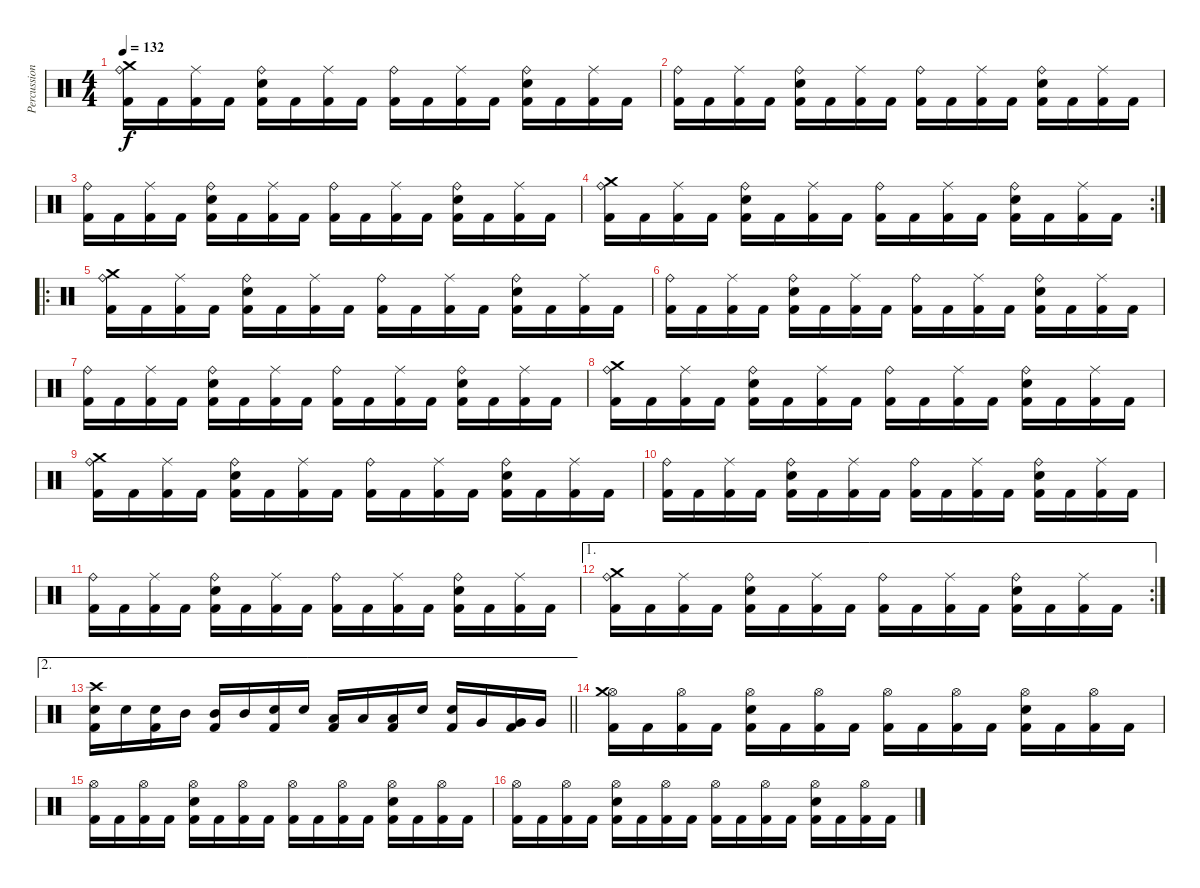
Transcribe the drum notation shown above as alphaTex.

\track ("Percussion" "Percussion") {instrument percussion}
\staff {score}
\articulation defaults
\ts (4 4)
\tempo 132
\clef neutral
\ks c
("Kick (hit) 2" "Ride (bell)" "Crash medium (hit)").16{dy f} "Kick (hit) 2".16 ("Kick (hit) 2" "Ride (middle)").16 "Kick (hit) 2".16 ("Kick (hit) 2" "Electric Snare (hit)" "Ride (bell)").16 "Kick (hit) 2".16 ("Kick (hit) 2" "Ride (middle)").16 "Kick (hit) 2".16 ("Kick (hit) 2" "Ride (bell)").16 "Kick (hit) 2".16 ("Kick (hit) 2" "Ride (middle)").16 "Kick (hit) 2".16 ("Kick (hit) 2" "Electric Snare (hit)" "Ride (bell)").16 "Kick (hit) 2".16 ("Kick (hit) 2" "Ride (middle)").16 "Kick (hit) 2".16 |
("Kick (hit) 2" "Ride (bell)").16 "Kick (hit) 2".16 ("Kick (hit) 2" "Ride (middle)").16 "Kick (hit) 2".16 ("Kick (hit) 2" "Electric Snare (hit)" "Ride (bell)").16 "Kick (hit) 2".16 ("Kick (hit) 2" "Ride (middle)").16 "Kick (hit) 2".16 ("Kick (hit) 2" "Ride (bell)").16 "Kick (hit) 2".16 ("Kick (hit) 2" "Ride (middle)").16 "Kick (hit) 2".16 ("Kick (hit) 2" "Electric Snare (hit)" "Ride (bell)").16 "Kick (hit) 2".16 ("Kick (hit) 2" "Ride (middle)").16 "Kick (hit) 2".16 |
("Kick (hit) 2" "Ride (bell)").16 "Kick (hit) 2".16 ("Kick (hit) 2" "Ride (middle)").16 "Kick (hit) 2".16 ("Kick (hit) 2" "Electric Snare (hit)" "Ride (bell)").16 "Kick (hit) 2".16 ("Kick (hit) 2" "Ride (middle)").16 "Kick (hit) 2".16 ("Kick (hit) 2" "Ride (bell)").16 "Kick (hit) 2".16 ("Kick (hit) 2" "Ride (middle)").16 "Kick (hit) 2".16 ("Kick (hit) 2" "Electric Snare (hit)" "Ride (bell)").16 "Kick (hit) 2".16 ("Kick (hit) 2" "Ride (middle)").16 "Kick (hit) 2".16 |
\rc 2
("Kick (hit) 2" "Ride (bell)" "Crash medium (hit)").16 "Kick (hit) 2".16 ("Kick (hit) 2" "Ride (middle)").16 "Kick (hit) 2".16 ("Kick (hit) 2" "Electric Snare (hit)" "Ride (bell)").16 "Kick (hit) 2".16 ("Kick (hit) 2" "Ride (middle)").16 "Kick (hit) 2".16 ("Kick (hit) 2" "Ride (bell)").16 "Kick (hit) 2".16 ("Kick (hit) 2" "Ride (middle)").16 "Kick (hit) 2".16 ("Kick (hit) 2" "Electric Snare (hit)" "Ride (bell)").16 "Kick (hit) 2".16 ("Kick (hit) 2" "Ride (middle)").16 "Kick (hit) 2".16 |
\ro
("Kick (hit) 2" "Ride (bell)" "Crash medium (hit)").16 "Kick (hit) 2".16 ("Kick (hit) 2" "Ride (middle)").16 "Kick (hit) 2".16 ("Kick (hit) 2" "Electric Snare (hit)" "Ride (bell)").16 "Kick (hit) 2".16 ("Kick (hit) 2" "Ride (middle)").16 "Kick (hit) 2".16 ("Kick (hit) 2" "Ride (bell)").16 "Kick (hit) 2".16 ("Kick (hit) 2" "Ride (middle)").16 "Kick (hit) 2".16 ("Kick (hit) 2" "Electric Snare (hit)" "Ride (bell)").16 "Kick (hit) 2".16 ("Kick (hit) 2" "Ride (middle)").16 "Kick (hit) 2".16 |
("Kick (hit) 2" "Ride (bell)").16 "Kick (hit) 2".16 ("Kick (hit) 2" "Ride (middle)").16 "Kick (hit) 2".16 ("Kick (hit) 2" "Electric Snare (hit)" "Ride (bell)").16 "Kick (hit) 2".16 ("Kick (hit) 2" "Ride (middle)").16 "Kick (hit) 2".16 ("Kick (hit) 2" "Ride (bell)").16 "Kick (hit) 2".16 ("Kick (hit) 2" "Ride (middle)").16 "Kick (hit) 2".16 ("Kick (hit) 2" "Electric Snare (hit)" "Ride (bell)").16 "Kick (hit) 2".16 ("Kick (hit) 2" "Ride (middle)").16 "Kick (hit) 2".16 |
("Kick (hit) 2" "Ride (bell)").16 "Kick (hit) 2".16 ("Kick (hit) 2" "Ride (middle)").16 "Kick (hit) 2".16 ("Kick (hit) 2" "Electric Snare (hit)" "Ride (bell)").16 "Kick (hit) 2".16 ("Kick (hit) 2" "Ride (middle)").16 "Kick (hit) 2".16 ("Kick (hit) 2" "Ride (bell)").16 "Kick (hit) 2".16 ("Kick (hit) 2" "Ride (middle)").16 "Kick (hit) 2".16 ("Kick (hit) 2" "Electric Snare (hit)" "Ride (bell)").16 "Kick (hit) 2".16 ("Kick (hit) 2" "Ride (middle)").16 "Kick (hit) 2".16 |
("Kick (hit) 2" "Ride (bell)" "Crash medium (hit)").16 "Kick (hit) 2".16 ("Kick (hit) 2" "Ride (middle)").16 "Kick (hit) 2".16 ("Kick (hit) 2" "Electric Snare (hit)" "Ride (bell)").16 "Kick (hit) 2".16 ("Kick (hit) 2" "Ride (middle)").16 "Kick (hit) 2".16 ("Kick (hit) 2" "Ride (bell)").16 "Kick (hit) 2".16 ("Kick (hit) 2" "Ride (middle)").16 "Kick (hit) 2".16 ("Kick (hit) 2" "Electric Snare (hit)" "Ride (bell)").16 "Kick (hit) 2".16 ("Kick (hit) 2" "Ride (middle)").16 "Kick (hit) 2".16 |
("Kick (hit) 2" "Ride (bell)" "Crash medium (hit)").16 "Kick (hit) 2".16 ("Kick (hit) 2" "Ride (middle)").16 "Kick (hit) 2".16 ("Kick (hit) 2" "Electric Snare (hit)" "Ride (bell)").16 "Kick (hit) 2".16 ("Kick (hit) 2" "Ride (middle)").16 "Kick (hit) 2".16 ("Kick (hit) 2" "Ride (bell)").16 "Kick (hit) 2".16 ("Kick (hit) 2" "Ride (middle)").16 "Kick (hit) 2".16 ("Kick (hit) 2" "Electric Snare (hit)" "Ride (bell)").16 "Kick (hit) 2".16 ("Kick (hit) 2" "Ride (middle)").16 "Kick (hit) 2".16 |
("Kick (hit) 2" "Ride (bell)").16 "Kick (hit) 2".16 ("Kick (hit) 2" "Ride (middle)").16 "Kick (hit) 2".16 ("Kick (hit) 2" "Electric Snare (hit)" "Ride (bell)").16 "Kick (hit) 2".16 ("Kick (hit) 2" "Ride (middle)").16 "Kick (hit) 2".16 ("Kick (hit) 2" "Ride (bell)").16 "Kick (hit) 2".16 ("Kick (hit) 2" "Ride (middle)").16 "Kick (hit) 2".16 ("Kick (hit) 2" "Electric Snare (hit)" "Ride (bell)").16 "Kick (hit) 2".16 ("Kick (hit) 2" "Ride (middle)").16 "Kick (hit) 2".16 |
("Kick (hit) 2" "Ride (bell)").16 "Kick (hit) 2".16 ("Kick (hit) 2" "Ride (middle)").16 "Kick (hit) 2".16 ("Kick (hit) 2" "Electric Snare (hit)" "Ride (bell)").16 "Kick (hit) 2".16 ("Kick (hit) 2" "Ride (middle)").16 "Kick (hit) 2".16 ("Kick (hit) 2" "Ride (bell)").16 "Kick (hit) 2".16 ("Kick (hit) 2" "Ride (middle)").16 "Kick (hit) 2".16 ("Kick (hit) 2" "Electric Snare (hit)" "Ride (bell)").16 "Kick (hit) 2".16 ("Kick (hit) 2" "Ride (middle)").16 "Kick (hit) 2".16 |
\ae 1
\rc 2
("Kick (hit) 2" "Ride (bell)" "Crash medium (hit)").16 "Kick (hit) 2".16 ("Kick (hit) 2" "Ride (middle)").16 "Kick (hit) 2".16 ("Kick (hit) 2" "Electric Snare (hit)" "Ride (bell)").16 "Kick (hit) 2".16 ("Kick (hit) 2" "Ride (middle)").16 "Kick (hit) 2".16 ("Kick (hit) 2" "Ride (bell)").16 "Kick (hit) 2".16 ("Kick (hit) 2" "Ride (middle)").16 "Kick (hit) 2".16 ("Kick (hit) 2" "Electric Snare (hit)" "Ride (bell)").16 "Kick (hit) 2".16 ("Kick (hit) 2" "Ride (middle)").16 "Kick (hit) 2".16 |
\ae 2
\barLineRight lightlight
("Crash high (hit)" "Electric Snare (hit)" "Kick (hit) 2").16 "Electric Snare (hit)".16 ("Electric Snare (hit)" "Kick (hit) 2").16 "Mid Tom (hit)".16 ("Mid Tom (hit)" "Kick (hit) 2").16 "Mid Tom (hit)".16 ("Electric Snare (hit)" "Kick (hit) 2").16 "Electric Snare (hit)".16 ("Low Tom (hit)" "Kick (hit) 2").16 "Low Tom (hit)".16 ("Low Tom (hit)" "Kick (hit) 2").16 "Electric Snare (hit)".16 ("Electric Snare (hit)" "Kick (hit) 2").16 "Very Low Tom (hit)".16 ("Very Low Tom (hit)" "Kick (hit) 2").16 "Very Low Tom (hit)".16 |
("Kick (hit) 2" "Hi-Hat (open)" "Crash medium (hit)").16 "Kick (hit) 2".16 ("Kick (hit) 2" "Hi-Hat (open)").16 "Kick (hit) 2".16 ("Kick (hit) 2" "Electric Snare (hit)" "Hi-Hat (open)").16 "Kick (hit) 2".16 ("Kick (hit) 2" "Hi-Hat (open)").16 "Kick (hit) 2".16 ("Kick (hit) 2" "Hi-Hat (open)").16 "Kick (hit) 2".16 ("Kick (hit) 2" "Hi-Hat (open)").16 "Kick (hit) 2".16 ("Kick (hit) 2" "Electric Snare (hit)" "Hi-Hat (open)").16 "Kick (hit) 2".16 ("Kick (hit) 2" "Hi-Hat (open)").16 "Kick (hit) 2".16 |
("Kick (hit) 2" "Hi-Hat (open)").16 "Kick (hit) 2".16 ("Kick (hit) 2" "Hi-Hat (open)").16 "Kick (hit) 2".16 ("Kick (hit) 2" "Electric Snare (hit)" "Hi-Hat (open)").16 "Kick (hit) 2".16 ("Kick (hit) 2" "Hi-Hat (open)").16 "Kick (hit) 2".16 ("Kick (hit) 2" "Hi-Hat (open)").16 "Kick (hit) 2".16 ("Kick (hit) 2" "Hi-Hat (open)").16 "Kick (hit) 2".16 ("Kick (hit) 2" "Electric Snare (hit)" "Hi-Hat (open)").16 "Kick (hit) 2".16 ("Kick (hit) 2" "Hi-Hat (open)").16 "Kick (hit) 2".16 |
("Kick (hit) 2" "Hi-Hat (open)").16 "Kick (hit) 2".16 ("Kick (hit) 2" "Hi-Hat (open)").16 "Kick (hit) 2".16 ("Kick (hit) 2" "Electric Snare (hit)" "Hi-Hat (open)").16 "Kick (hit) 2".16 ("Kick (hit) 2" "Hi-Hat (open)").16 "Kick (hit) 2".16 ("Kick (hit) 2" "Hi-Hat (open)").16 "Kick (hit) 2".16 ("Kick (hit) 2" "Hi-Hat (open)").16 "Kick (hit) 2".16 ("Kick (hit) 2" "Electric Snare (hit)" "Hi-Hat (open)").16 "Kick (hit) 2".16 ("Kick (hit) 2" "Hi-Hat (open)").16 "Kick (hit) 2".16
